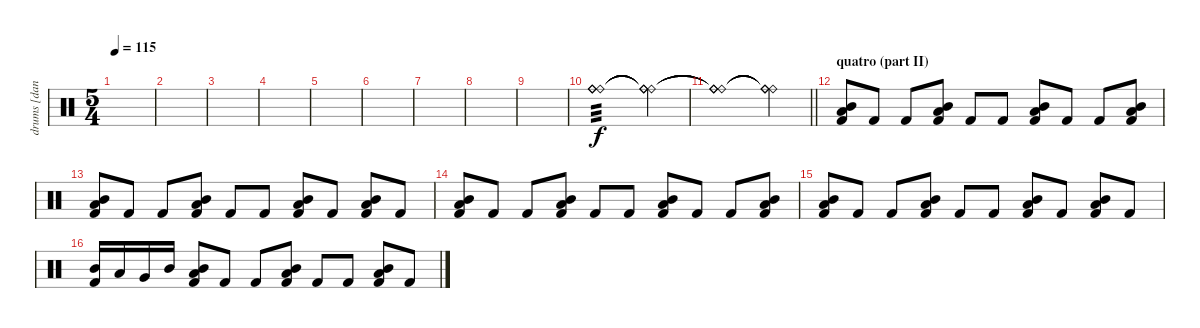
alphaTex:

\track ("drums [danny carey]" "drums [dan") {instrument percussion}
\staff {score}
\articulation defaults
\ts (5 4)
\tempo 115
\clef neutral
\ks c
|
|
|
|
|
|
|
|
|
("Ride (bell)" "Ride (bell)" "Ride (bell)" "Ride (bell)").1{tp 3 volume 7} ("Ride (bell)"{t} "Ride (bell)"{t} "Ride (bell)"{t} "Ride (bell)"{t}).4{volume 13} |
\barLineRight lightlight
("Ride (bell)"{t} "Ride (bell)"{t} "Ride (bell)"{t} "Ride (bell)"{t}).1 ("Ride (bell)"{t} "Ride (bell)"{t} "Ride (bell)"{t} "Ride (bell)"{t}).4 |
\section ("" "quatro (part II)")
("Low Tom (hit)" "Mid Tom (hit)" "Kick (hit) 2").8{volume 14} "Kick (hit) 2".8 "Kick (hit) 2".8 ("Low Tom (hit)" "Mid Tom (hit)" "Kick (hit) 2").8 "Kick (hit) 2".8 "Kick (hit) 2".8 ("Low Tom (hit)" "Mid Tom (hit)" "Kick (hit) 2").8 "Kick (hit) 2".8 "Kick (hit) 2".8 ("Low Tom (hit)" "Mid Tom (hit)" "Kick (hit) 2").8 |
("Low Tom (hit)" "Mid Tom (hit)" "Kick (hit) 2").8 "Kick (hit) 2".8 "Kick (hit) 2".8 ("Mid Tom (hit)" "Low Tom (hit)" "Kick (hit) 2").8 "Kick (hit) 2".8 "Kick (hit) 2".8 ("Mid Tom (hit)" "Low Tom (hit)" "Kick (hit) 2").8 "Kick (hit) 2".8 ("Mid Tom (hit)" "Low Tom (hit)" "Kick (hit) 2").8 "Kick (hit) 2".8 |
("Low Tom (hit)" "Mid Tom (hit)" "Kick (hit) 2").8 "Kick (hit) 2".8 "Kick (hit) 2".8 ("Low Tom (hit)" "Mid Tom (hit)" "Kick (hit) 2").8 "Kick (hit) 2".8 "Kick (hit) 2".8 ("Low Tom (hit)" "Mid Tom (hit)" "Kick (hit) 2").8 "Kick (hit) 2".8 "Kick (hit) 2".8 ("Low Tom (hit)" "Mid Tom (hit)" "Kick (hit) 2").8 |
("Low Tom (hit)" "Mid Tom (hit)" "Kick (hit) 2").8 "Kick (hit) 2".8 "Kick (hit) 2".8 ("Mid Tom (hit)" "Low Tom (hit)" "Kick (hit) 2").8 "Kick (hit) 2".8 "Kick (hit) 2".8 ("Mid Tom (hit)" "Low Tom (hit)" "Kick (hit) 2").8 "Kick (hit) 2".8 ("Mid Tom (hit)" "Low Tom (hit)" "Kick (hit) 2").8 "Kick (hit) 2".8 |
("Mid Tom (hit)" "Kick (hit) 2").16 "Low Tom (hit)".16 "Very Low Tom (hit)".16 "Mid Tom (hit)".16 ("Low Tom (hit)" "Mid Tom (hit)" "Kick (hit) 2").8 "Kick (hit) 2".8 "Kick (hit) 2".8 ("Low Tom (hit)" "Mid Tom (hit)" "Kick (hit) 2").8 "Kick (hit) 2".8 "Kick (hit) 2".8 ("Low Tom (hit)" "Mid Tom (hit)" "Kick (hit) 2").8 "Kick (hit) 2".8
